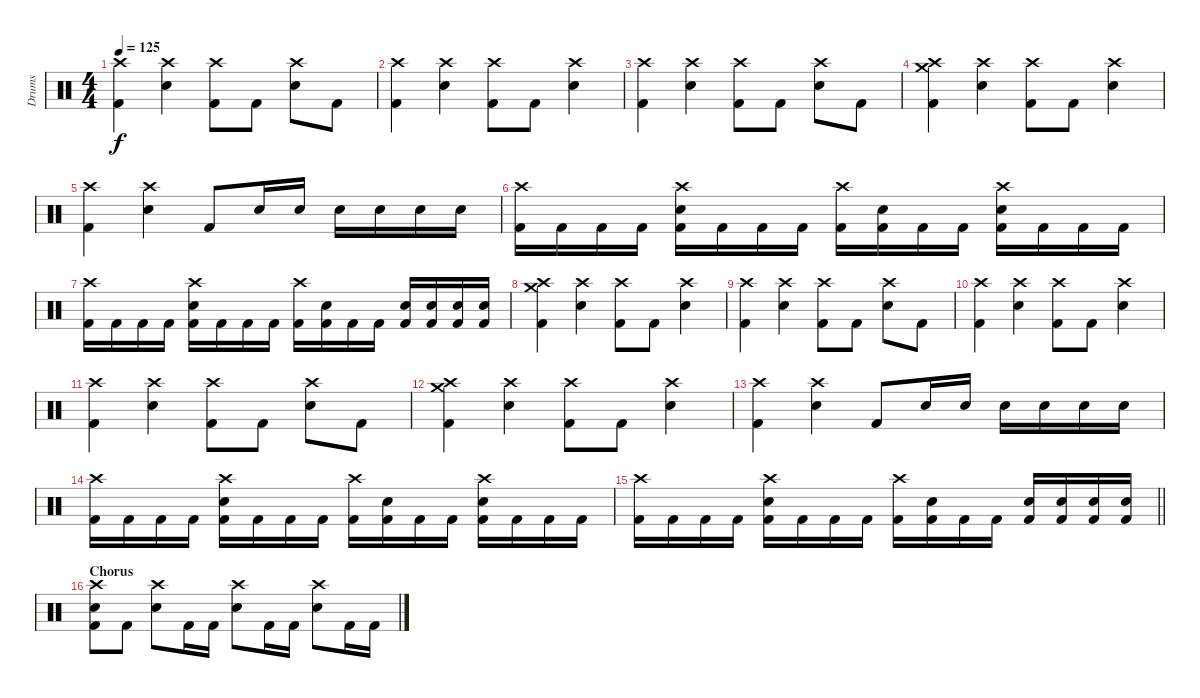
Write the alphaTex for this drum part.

\track ("Drums" "Drums") {instrument percussion}
\staff {score}
\articulation defaults
\ts (4 4)
\tempo 125
\clef neutral
\ks c
("Crash high (hit)" "Kick (hit) 2").4{dy f} ("Crash high (hit)" "Snare (hit) 2").4 ("Crash high (hit)" "Kick (hit) 2").8 "Kick (hit) 2".8 ("Crash high (hit)" "Snare (hit) 2").8 "Kick (hit) 2".8 |
("Crash high (hit)" "Kick (hit) 2").4 ("Crash high (hit)" "Snare (hit) 2").4 ("Crash high (hit)" "Kick (hit) 2").8 "Kick (hit) 2".8 ("Crash high (hit)" "Snare (hit) 2").4 |
("Crash high (hit)" "Kick (hit) 2").4 ("Crash high (hit)" "Snare (hit) 2").4 ("Crash high (hit)" "Kick (hit) 2").8 "Kick (hit) 2".8 ("Crash high (hit)" "Snare (hit) 2").8 "Kick (hit) 2".8 |
("Crash medium (hit)" "Crash high (hit)" "Kick (hit) 2").4 ("Crash high (hit)" "Snare (hit) 2").4 ("Crash high (hit)" "Kick (hit) 2").8 "Kick (hit) 2".8 ("Crash high (hit)" "Snare (hit) 2").4 |
("Crash high (hit)" "Kick (hit) 2").4 ("Crash high (hit)" "Snare (hit) 2").4 "Kick (hit) 2".8 "Snare (hit) 2".16 "Snare (hit) 2".16 "Snare (hit) 2".16 "Snare (hit) 2".16 "Snare (hit) 2".16 "Snare (hit) 2".16 |
("Crash high (hit)" "Kick (hit) 2").16 "Kick (hit) 2".16 "Kick (hit) 2".16 "Kick (hit) 2".16 ("Crash high (hit)" "Snare (hit) 2" "Kick (hit) 2").16 "Kick (hit) 2".16 "Kick (hit) 2".16 "Kick (hit) 2".16 ("Crash high (hit)" "Kick (hit) 2").16 ("Snare (hit) 2" "Kick (hit) 2").16 "Kick (hit) 2".16 "Kick (hit) 2".16 ("Crash high (hit)" "Snare (hit) 2" "Kick (hit) 2").16 "Kick (hit) 2".16 "Kick (hit) 2".16 "Kick (hit) 2".16 |
("Crash high (hit)" "Kick (hit) 2").16 "Kick (hit) 2".16 "Kick (hit) 2".16 "Kick (hit) 2".16 ("Crash high (hit)" "Snare (hit) 2" "Kick (hit) 2").16 "Kick (hit) 2".16 "Kick (hit) 2".16 "Kick (hit) 2".16 ("Crash high (hit)" "Kick (hit) 2").16 ("Snare (hit) 2" "Kick (hit) 2").16 "Kick (hit) 2".16 "Kick (hit) 2".16 ("Snare (hit) 2" "Kick (hit) 2").16 ("Snare (hit) 2" "Kick (hit) 2").16 ("Snare (hit) 2" "Kick (hit) 2").16 ("Snare (hit) 2" "Kick (hit) 2").16 |
("Crash medium (hit)" "Crash high (hit)" "Kick (hit) 2").4 ("Crash high (hit)" "Snare (hit) 2").4 ("Crash high (hit)" "Kick (hit) 2").8 "Kick (hit) 2".8 ("Crash high (hit)" "Snare (hit) 2").4 |
("Crash high (hit)" "Kick (hit) 2").4 ("Crash high (hit)" "Snare (hit) 2").4 ("Crash high (hit)" "Kick (hit) 2").8 "Kick (hit) 2".8 ("Crash high (hit)" "Snare (hit) 2").8 "Kick (hit) 2".8 |
("Crash high (hit)" "Kick (hit) 2").4 ("Crash high (hit)" "Snare (hit) 2").4 ("Crash high (hit)" "Kick (hit) 2").8 "Kick (hit) 2".8 ("Crash high (hit)" "Snare (hit) 2").4 |
("Crash high (hit)" "Kick (hit) 2").4 ("Crash high (hit)" "Snare (hit) 2").4 ("Crash high (hit)" "Kick (hit) 2").8 "Kick (hit) 2".8 ("Crash high (hit)" "Snare (hit) 2").8 "Kick (hit) 2".8 |
("Crash medium (hit)" "Crash high (hit)" "Kick (hit) 2").4 ("Crash high (hit)" "Snare (hit) 2").4 ("Crash high (hit)" "Kick (hit) 2").8 "Kick (hit) 2".8 ("Crash high (hit)" "Snare (hit) 2").4 |
("Crash high (hit)" "Kick (hit) 2").4 ("Crash high (hit)" "Snare (hit) 2").4 "Kick (hit) 2".8 "Snare (hit) 2".16 "Snare (hit) 2".16 "Snare (hit) 2".16 "Snare (hit) 2".16 "Snare (hit) 2".16 "Snare (hit) 2".16 |
("Crash high (hit)" "Kick (hit) 2").16 "Kick (hit) 2".16 "Kick (hit) 2".16 "Kick (hit) 2".16 ("Crash high (hit)" "Snare (hit) 2" "Kick (hit) 2").16 "Kick (hit) 2".16 "Kick (hit) 2".16 "Kick (hit) 2".16 ("Crash high (hit)" "Kick (hit) 2").16 ("Snare (hit) 2" "Kick (hit) 2").16 "Kick (hit) 2".16 "Kick (hit) 2".16 ("Crash high (hit)" "Snare (hit) 2" "Kick (hit) 2").16 "Kick (hit) 2".16 "Kick (hit) 2".16 "Kick (hit) 2".16 |
\barLineRight lightlight
("Crash high (hit)" "Kick (hit) 2").16 "Kick (hit) 2".16 "Kick (hit) 2".16 "Kick (hit) 2".16 ("Crash high (hit)" "Snare (hit) 2" "Kick (hit) 2").16 "Kick (hit) 2".16 "Kick (hit) 2".16 "Kick (hit) 2".16 ("Crash high (hit)" "Kick (hit) 2").16 ("Snare (hit) 2" "Kick (hit) 2").16 "Kick (hit) 2".16 "Kick (hit) 2".16 ("Snare (hit) 2" "Kick (hit) 2").16 ("Snare (hit) 2" "Kick (hit) 2").16 ("Snare (hit) 2" "Kick (hit) 2").16 ("Snare (hit) 2" "Kick (hit) 2").16 |
\section ("" "Chorus")
("Crash high (hit)" "Snare (hit) 2" "Kick (hit) 2").8 "Kick (hit) 2".8 ("Crash high (hit)" "Snare (hit) 2").8 "Kick (hit) 2".16 "Kick (hit) 2".16 ("Crash high (hit)" "Snare (hit) 2").8 "Kick (hit) 2".16 "Kick (hit) 2".16 ("Crash high (hit)" "Snare (hit) 2").8 "Kick (hit) 2".16 "Kick (hit) 2".16
